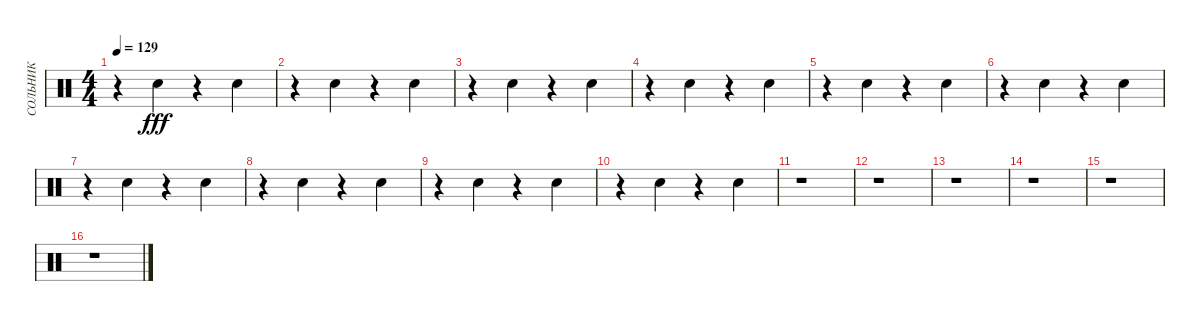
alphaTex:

\track ("СОЛЬНИК" "СОЛЬНИК") {instrument percussion}
\staff {score}
\articulation defaults
\ts (4 4)
\tempo 129
\clef neutral
\ks c
r.4{dy fff} "Snare (hit) 2".4 r.4 "Snare (hit) 2".4 |
r.4 "Snare (hit) 2".4 r.4 "Snare (hit) 2".4 |
r.4 "Snare (hit) 2".4 r.4 "Snare (hit) 2".4 |
r.4 "Snare (hit) 2".4 r.4 "Snare (hit) 2".4 |
r.4 "Snare (hit) 2".4 r.4 "Snare (hit) 2".4 |
r.4 "Snare (hit) 2".4 r.4 "Snare (hit) 2".4 |
r.4 "Snare (hit) 2".4 r.4 "Snare (hit) 2".4 |
r.4 "Snare (hit) 2".4 r.4 "Snare (hit) 2".4 |
r.4 "Snare (hit) 2".4 r.4 "Snare (hit) 2".4 |
r.4 "Snare (hit) 2".4 r.4 "Snare (hit) 2".4 |
r.1 |
r.1 |
r.1 |
r.1 |
r.1 |
r.1
